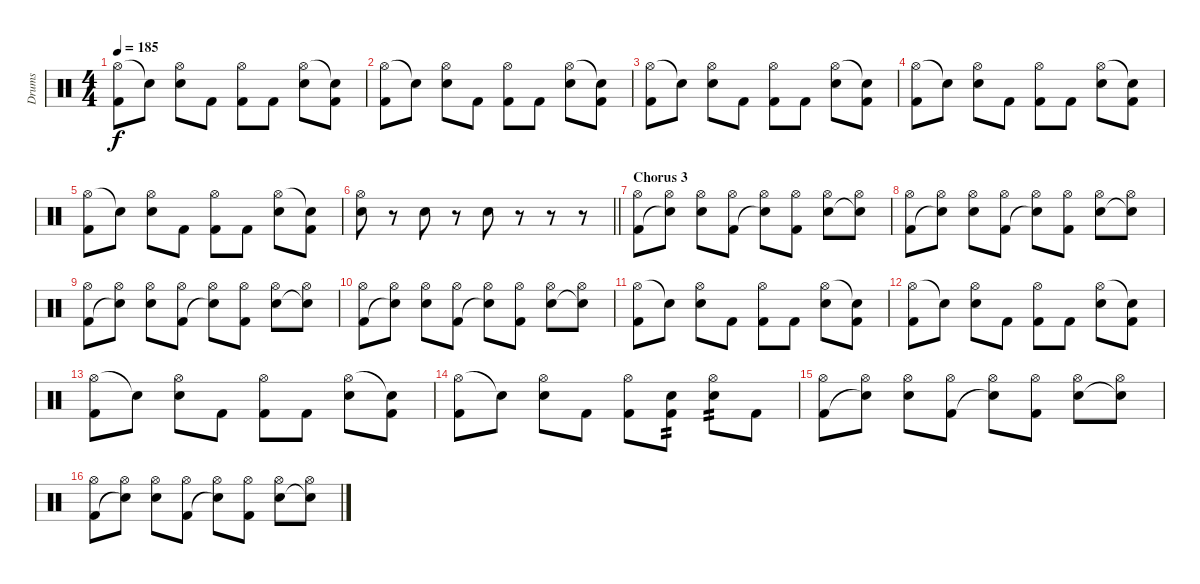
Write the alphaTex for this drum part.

\track ("Drums" "Drums") {instrument percussion}
\staff {score}
\articulation defaults
\ts (4 4)
\tempo 185
\clef neutral
\ks c
("Hi-Hat (open)" "Kick (hit) 2").8{dy f} "Snare (hit)"{t}.8 ("Hi-Hat (open)" "Electric Snare (hit)").8 "Kick (hit) 2".8 ("Hi-Hat (open)" "Kick (hit) 2").8 "Kick (hit) 2".8 ("Hi-Hat (open)" "Electric Snare (hit)").8 ("Snare (hit)"{t} "Kick (hit) 2").8 |
("Hi-Hat (open)" "Kick (hit) 2").8 "Snare (hit)"{t}.8 ("Hi-Hat (open)" "Electric Snare (hit)").8 "Kick (hit) 2".8 ("Hi-Hat (open)" "Kick (hit) 2").8 "Kick (hit) 2".8 ("Hi-Hat (open)" "Electric Snare (hit)").8 ("Snare (hit)"{t} "Kick (hit) 2").8 |
("Hi-Hat (open)" "Kick (hit) 2").8 "Snare (hit)"{t}.8 ("Hi-Hat (open)" "Electric Snare (hit)").8 "Kick (hit) 2".8 ("Hi-Hat (open)" "Kick (hit) 2").8 "Kick (hit) 2".8 ("Hi-Hat (open)" "Electric Snare (hit)").8 ("Snare (hit)"{t} "Kick (hit) 2").8 |
("Hi-Hat (open)" "Kick (hit) 2").8 "Snare (hit)"{t}.8 ("Hi-Hat (open)" "Electric Snare (hit)").8 "Kick (hit) 2".8 ("Hi-Hat (open)" "Kick (hit) 2").8 "Kick (hit) 2".8 ("Hi-Hat (open)" "Electric Snare (hit)").8 ("Snare (hit)"{t} "Kick (hit) 2").8 |
("Hi-Hat (open)" "Kick (hit) 2").8 "Snare (hit)"{t}.8 ("Hi-Hat (open)" "Electric Snare (hit)").8 "Kick (hit) 2".8 ("Hi-Hat (open)" "Kick (hit) 2").8 "Kick (hit) 2".8 ("Hi-Hat (open)" "Electric Snare (hit)").8 ("Snare (hit)"{t} "Kick (hit) 2").8 |
\barLineRight lightlight
("Hi-Hat (open)" "Electric Snare (hit)").8 r.8 "Electric Snare (hit)".8 r.8 "Electric Snare (hit)".8 r.8 r.8 r.8 |
\section ("" "Chorus 3")
("Hi-Hat (open)" "Kick (hit) 2").8 ("Hi-Hat (open)" "Snare (hit)"{t}).8 ("Hi-Hat (open)" "Electric Snare (hit)").8 ("Hi-Hat (open)" "Kick (hit) 2").8 ("Hi-Hat (open)" "Snare (hit)"{t}).8 ("Hi-Hat (open)" "Kick (hit) 2").8 ("Hi-Hat (open)" "Electric Snare (hit)").8 ("Hi-Hat (open)" "Snare (hit)"{t}).8 |
("Hi-Hat (open)" "Kick (hit) 2").8 ("Hi-Hat (open)" "Snare (hit)"{t}).8 ("Hi-Hat (open)" "Electric Snare (hit)").8 ("Hi-Hat (open)" "Kick (hit) 2").8 ("Hi-Hat (open)" "Snare (hit)"{t}).8 ("Hi-Hat (open)" "Kick (hit) 2").8 ("Hi-Hat (open)" "Electric Snare (hit)").8 ("Hi-Hat (open)" "Snare (hit)"{t}).8 |
("Hi-Hat (open)" "Kick (hit) 2").8 ("Hi-Hat (open)" "Snare (hit)"{t}).8 ("Hi-Hat (open)" "Electric Snare (hit)").8 ("Hi-Hat (open)" "Kick (hit) 2").8 ("Hi-Hat (open)" "Snare (hit)"{t}).8 ("Hi-Hat (open)" "Kick (hit) 2").8 ("Hi-Hat (open)" "Electric Snare (hit)").8 ("Hi-Hat (open)" "Snare (hit)"{t}).8 |
("Hi-Hat (open)" "Kick (hit) 2").8 ("Hi-Hat (open)" "Snare (hit)"{t}).8 ("Hi-Hat (open)" "Electric Snare (hit)").8 ("Hi-Hat (open)" "Kick (hit) 2").8 ("Hi-Hat (open)" "Snare (hit)"{t}).8 ("Hi-Hat (open)" "Kick (hit) 2").8 ("Hi-Hat (open)" "Electric Snare (hit)").8 ("Hi-Hat (open)" "Snare (hit)"{t}).8 |
("Hi-Hat (open)" "Kick (hit) 2").8 "Snare (hit)"{t}.8 ("Hi-Hat (open)" "Electric Snare (hit)").8 "Kick (hit) 2".8 ("Hi-Hat (open)" "Kick (hit) 2").8 "Kick (hit) 2".8 ("Hi-Hat (open)" "Electric Snare (hit)").8 ("Snare (hit)"{t} "Kick (hit) 2").8 |
("Hi-Hat (open)" "Kick (hit) 2").8 "Snare (hit)"{t}.8 ("Hi-Hat (open)" "Electric Snare (hit)").8 "Kick (hit) 2".8 ("Hi-Hat (open)" "Kick (hit) 2").8 "Kick (hit) 2".8 ("Hi-Hat (open)" "Electric Snare (hit)").8 ("Snare (hit)"{t} "Kick (hit) 2").8 |
("Hi-Hat (open)" "Kick (hit) 2").8 "Snare (hit)"{t}.8 ("Hi-Hat (open)" "Electric Snare (hit)").8 "Kick (hit) 2".8 ("Hi-Hat (open)" "Kick (hit) 2").8 "Kick (hit) 2".8 ("Hi-Hat (open)" "Electric Snare (hit)").8 ("Snare (hit)"{t} "Kick (hit) 2").8 |
("Hi-Hat (open)" "Kick (hit) 2").8 "Snare (hit)"{t}.8 ("Hi-Hat (open)" "Electric Snare (hit)").8 "Kick (hit) 2".8 ("Hi-Hat (open)" "Kick (hit) 2").8 ("Electric Snare (hit)" "Kick (hit) 2").8{tp 2} ("Hi-Hat (open)" "Electric Snare (hit)").8{tp 2} "Kick (hit) 2".8 |
("Hi-Hat (open)" "Kick (hit) 2").8 ("Hi-Hat (open)" "Snare (hit)"{t}).8 ("Hi-Hat (open)" "Electric Snare (hit)").8 ("Hi-Hat (open)" "Kick (hit) 2").8 ("Hi-Hat (open)" "Snare (hit)"{t}).8 ("Hi-Hat (open)" "Kick (hit) 2").8 ("Hi-Hat (open)" "Electric Snare (hit)").8 ("Hi-Hat (open)" "Snare (hit)"{t}).8 |
("Hi-Hat (open)" "Kick (hit) 2").8 ("Hi-Hat (open)" "Snare (hit)"{t}).8 ("Hi-Hat (open)" "Electric Snare (hit)").8 ("Hi-Hat (open)" "Kick (hit) 2").8 ("Hi-Hat (open)" "Snare (hit)"{t}).8 ("Hi-Hat (open)" "Kick (hit) 2").8 ("Hi-Hat (open)" "Electric Snare (hit)").8 ("Hi-Hat (open)" "Snare (hit)"{t}).8
